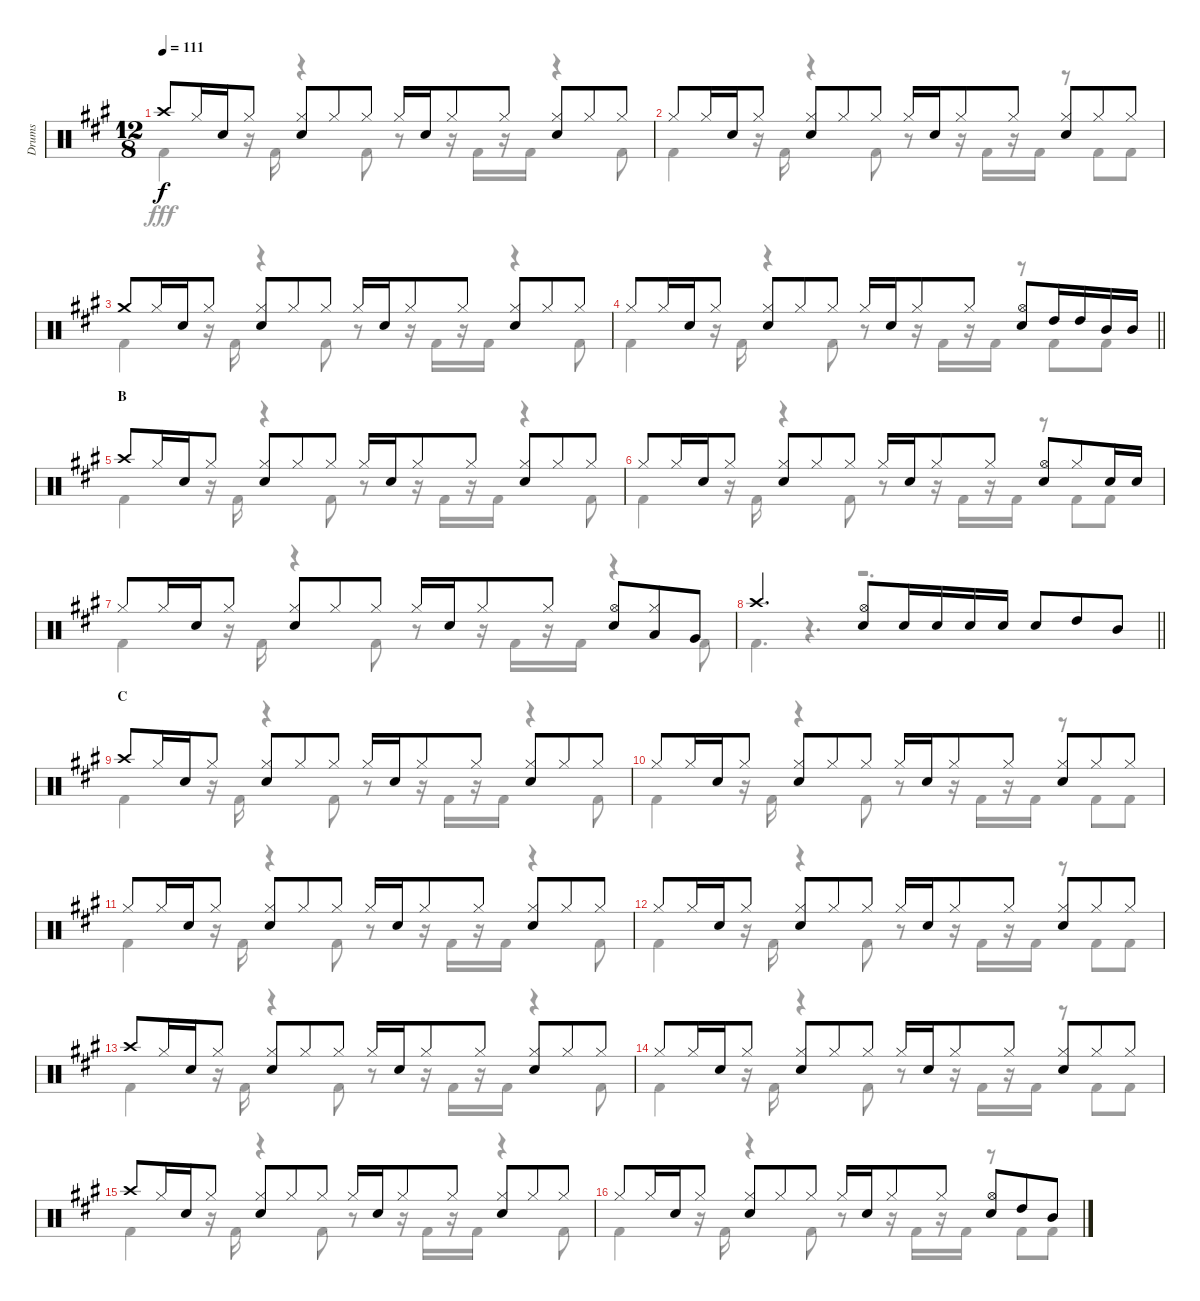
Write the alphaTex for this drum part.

\track ("Drums" "Drums") {instrument percussion}
\staff {score}
\articulation defaults
\voice
\ts (12 8)
\tempo 111
\clef neutral
\ks a "Crash high (hit)".8{dy f} "Hi-Hat (closed)".16 "Snare (hit) 2".16 "Hi-Hat (closed)".8
("Hi-Hat (closed)" "Snare (hit) 2").8 "Hi-Hat (closed)".8 "Hi-Hat (closed)".8 "Hi-Hat (closed)".16 "Snare (hit) 2".16 "Hi-Hat (closed)".8 "Hi-Hat (closed)".8 ("Hi-Hat (closed)" "Snare (hit) 2").8 "Hi-Hat (closed)".8 "Hi-Hat (closed)".8 |
"Hi-Hat (closed)".8 "Hi-Hat (closed)".16 "Snare (hit) 2".16 "Hi-Hat (closed)".8 ("Hi-Hat (closed)" "Snare (hit) 2").8 "Hi-Hat (closed)".8 "Hi-Hat (closed)".8 "Hi-Hat (closed)".16 "Snare (hit) 2".16 "Hi-Hat (closed)".8 "Hi-Hat (closed)".8 ("Hi-Hat (closed)" "Snare (hit) 2").8 "Hi-Hat (closed)".8 "Hi-Hat (closed)".8 |
"Crash medium (hit)".8 "Hi-Hat (closed)".16 "Snare (hit) 2".16 "Hi-Hat (closed)".8 ("Hi-Hat (closed)" "Snare (hit) 2").8 "Hi-Hat (closed)".8 "Hi-Hat (closed)".8 "Hi-Hat (closed)".16 "Snare (hit) 2".16 "Hi-Hat (closed)".8 "Hi-Hat (closed)".8 ("Hi-Hat (closed)" "Snare (hit) 2").8 "Hi-Hat (closed)".8 "Hi-Hat (closed)".8 |
\barLineRight lightlight "Hi-Hat (closed)".8 "Hi-Hat (closed)".16 "Snare (hit) 2".16 "Hi-Hat (closed)".8
("Hi-Hat (closed)" "Snare (hit) 2").8 "Hi-Hat (closed)".8 "Hi-Hat (closed)".8 "Hi-Hat (closed)".16 "Snare (hit) 2".16 "Hi-Hat (closed)".8 "Hi-Hat (closed)".8 ("Hi-Hat (open)" "Snare (hit) 2").8 "High Tom (hit)".16 "High Tom (hit)".16 "Mid Tom (hit)".16 "Mid Tom (hit)".16 |
\section ("" "B")
"Crash high (hit)".8 "Hi-Hat (closed)".16 "Snare (hit) 2".16 "Hi-Hat (closed)".8 ("Hi-Hat (closed)" "Snare (hit) 2").8 "Hi-Hat (closed)".8 "Hi-Hat (closed)".8 "Hi-Hat (closed)".16 "Snare (hit) 2".16 "Hi-Hat (closed)".8 "Hi-Hat (closed)".8 ("Hi-Hat (closed)" "Snare (hit) 2").8 "Hi-Hat (closed)".8 "Hi-Hat (closed)".8 |
"Hi-Hat (closed)".8 "Hi-Hat (closed)".16 "Snare (hit) 2".16 "Hi-Hat (closed)".8 ("Hi-Hat (closed)" "Snare (hit) 2").8 "Hi-Hat (closed)".8 "Hi-Hat (closed)".8 "Hi-Hat (closed)".16 "Snare (hit) 2".16 "Hi-Hat (closed)".8 "Hi-Hat (closed)".8 ("Hi-Hat (open)" "Snare (hit) 2").8 "Hi-Hat (closed)".8 "Snare (hit) 2".16 "Snare (hit) 2".16 |
"Hi-Hat (closed)".8 "Hi-Hat (closed)".16 "Snare (hit) 2".16 "Hi-Hat (closed)".8 ("Hi-Hat (closed)" "Snare (hit) 2").8 "Hi-Hat (closed)".8 "Hi-Hat (closed)".8 "Hi-Hat (closed)".16 "Snare (hit) 2".16 "Hi-Hat (closed)".8 "Hi-Hat (closed)".8 ("Hi-Hat (open)" "Snare (hit) 2").8 ("Hi-Hat (closed)" "Low Tom (hit)").8 "Very Low Tom (hit)".8 |
\barLineRight lightlight "Crash high (hit)".2{d}
("Hi-Hat (open)" "Snare (hit) 2").8 "Snare (hit) 2".16 "Snare (hit) 2".16 "Snare (hit) 2".16 "Snare (hit) 2".16 "Snare (hit) 2".8 "High Tom (hit)".8 "Mid Tom (hit)".8 |
\section ("" "C")
"Crash high (hit)".8 "Hi-Hat (closed)".16 "Snare (hit) 2".16 "Hi-Hat (closed)".8 ("Hi-Hat (closed)" "Snare (hit) 2").8 "Hi-Hat (closed)".8 "Hi-Hat (closed)".8 "Hi-Hat (closed)".16 "Snare (hit) 2".16 "Hi-Hat (closed)".8 "Hi-Hat (closed)".8 ("Hi-Hat (closed)" "Snare (hit) 2").8 "Hi-Hat (closed)".8 "Hi-Hat (closed)".8 |
"Hi-Hat (closed)".8 "Hi-Hat (closed)".16 "Snare (hit) 2".16 "Hi-Hat (closed)".8 ("Hi-Hat (closed)" "Snare (hit) 2").8 "Hi-Hat (closed)".8 "Hi-Hat (closed)".8 "Hi-Hat (closed)".16 "Snare (hit) 2".16 "Hi-Hat (closed)".8 "Hi-Hat (closed)".8 ("Hi-Hat (closed)" "Snare (hit) 2").8 "Hi-Hat (closed)".8 "Hi-Hat (closed)".8 |
"Hi-Hat (closed)".8 "Hi-Hat (closed)".16 "Snare (hit) 2".16 "Hi-Hat (closed)".8 ("Hi-Hat (closed)" "Snare (hit) 2").8 "Hi-Hat (closed)".8 "Hi-Hat (closed)".8 "Hi-Hat (closed)".16 "Snare (hit) 2".16 "Hi-Hat (closed)".8 "Hi-Hat (closed)".8 ("Hi-Hat (closed)" "Snare (hit) 2").8 "Hi-Hat (closed)".8 "Hi-Hat (closed)".8 |
"Hi-Hat (closed)".8 "Hi-Hat (closed)".16 "Snare (hit) 2".16 "Hi-Hat (closed)".8 ("Hi-Hat (closed)" "Snare (hit) 2").8 "Hi-Hat (closed)".8 "Hi-Hat (closed)".8 "Hi-Hat (closed)".16 "Snare (hit) 2".16 "Hi-Hat (closed)".8 "Hi-Hat (closed)".8 ("Hi-Hat (closed)" "Snare (hit) 2").8 "Hi-Hat (closed)".8 "Hi-Hat (closed)".8 |
"Crash high (hit)".8 "Hi-Hat (closed)".16 "Snare (hit) 2".16 "Hi-Hat (closed)".8 ("Hi-Hat (closed)" "Snare (hit) 2").8 "Hi-Hat (closed)".8 "Hi-Hat (closed)".8 "Hi-Hat (closed)".16 "Snare (hit) 2".16 "Hi-Hat (closed)".8 "Hi-Hat (closed)".8 ("Hi-Hat (closed)" "Snare (hit) 2").8 "Hi-Hat (closed)".8 "Hi-Hat (closed)".8 |
"Hi-Hat (closed)".8 "Hi-Hat (closed)".16 "Snare (hit) 2".16 "Hi-Hat (closed)".8 ("Hi-Hat (closed)" "Snare (hit) 2").8 "Hi-Hat (closed)".8 "Hi-Hat (closed)".8 "Hi-Hat (closed)".16 "Snare (hit) 2".16 "Hi-Hat (closed)".8 "Hi-Hat (closed)".8 ("Hi-Hat (closed)" "Snare (hit) 2").8 "Hi-Hat (closed)".8 "Hi-Hat (closed)".8 |
"Crash high (hit)".8 "Hi-Hat (closed)".16 "Snare (hit) 2".16 "Hi-Hat (closed)".8 ("Hi-Hat (closed)" "Snare (hit) 2").8 "Hi-Hat (closed)".8 "Hi-Hat (closed)".8 "Hi-Hat (closed)".16 "Snare (hit) 2".16 "Hi-Hat (closed)".8 "Hi-Hat (closed)".8 ("Hi-Hat (closed)" "Snare (hit) 2").8 "Hi-Hat (closed)".8 "Hi-Hat (closed)".8 |
"Hi-Hat (closed)".8 "Hi-Hat (closed)".16 "Snare (hit) 2".16 "Hi-Hat (closed)".8 ("Hi-Hat (closed)" "Snare (hit) 2").8 "Hi-Hat (closed)".8 "Hi-Hat (closed)".8 "Hi-Hat (closed)".16 "Snare (hit) 2".16 "Hi-Hat (closed)".8 "Hi-Hat (closed)".8 ("Hi-Hat (open)" "Snare (hit) 2").8 "High Tom (hit)".8 "Mid Tom (hit)".8
\voice
\clef neutral
\ottava regular
\simile none
\ks a "Kick (hit) 2".4{dy fff}
r.16 "Kick (hit) 2".16 r.4 "Kick (hit) 2".8 r.8 r.16 "Kick (hit) 2".16 r.16 "Kick (hit) 2".16 r.4 "Kick (hit) 2".8 |
"Kick (hit) 2".4 r.16 "Kick (hit) 2".16 r.4 "Kick (hit) 2".8 r.8 r.16 "Kick (hit) 2".16 r.16 "Kick (hit) 2".16 r.8 "Kick (hit) 2".8 "Kick (hit) 2".8 |
"Kick (hit) 2".4 r.16 "Kick (hit) 2".16 r.4 "Kick (hit) 2".8 r.8 r.16 "Kick (hit) 2".16 r.16 "Kick (hit) 2".16 r.4 "Kick (hit) 2".8 |
\barLineRight lightlight "Kick (hit) 2".4
r.16 "Kick (hit) 2".16 r.4 "Kick (hit) 2".8 r.8 r.16 "Kick (hit) 2".16 r.16 "Kick (hit) 2".16 r.8 "Kick (hit) 2".8 "Kick (hit) 2".8 |
"Kick (hit) 2".4 r.16 "Kick (hit) 2".16 r.4 "Kick (hit) 2".8 r.8 r.16 "Kick (hit) 2".16 r.16 "Kick (hit) 2".16 r.4 "Kick (hit) 2".8 |
"Kick (hit) 2".4 r.16 "Kick (hit) 2".16 r.4 "Kick (hit) 2".8 r.8 r.16 "Kick (hit) 2".16 r.16 "Kick (hit) 2".16 r.8 "Kick (hit) 2".8 "Kick (hit) 2".8 |
"Kick (hit) 2".4 r.16 "Kick (hit) 2".16 r.4 "Kick (hit) 2".8 r.8 r.16 "Kick (hit) 2".16 r.16 "Kick (hit) 2".16 r.4 "Kick (hit) 2".8 |
\barLineRight lightlight "Kick (hit) 2".4{d}
r.4{d} r.2{d} |
"Kick (hit) 2".4 r.16 "Kick (hit) 2".16 r.4 "Kick (hit) 2".8 r.8 r.16 "Kick (hit) 2".16 r.16 "Kick (hit) 2".16 r.4 "Kick (hit) 2".8 |
"Kick (hit) 2".4 r.16 "Kick (hit) 2".16 r.4 "Kick (hit) 2".8 r.8 r.16 "Kick (hit) 2".16 r.16 "Kick (hit) 2".16 r.8 "Kick (hit) 2".8 "Kick (hit) 2".8 |
"Kick (hit) 2".4 r.16 "Kick (hit) 2".16 r.4 "Kick (hit) 2".8 r.8 r.16 "Kick (hit) 2".16 r.16 "Kick (hit) 2".16 r.4 "Kick (hit) 2".8 |
"Kick (hit) 2".4 r.16 "Kick (hit) 2".16 r.4 "Kick (hit) 2".8 r.8 r.16 "Kick (hit) 2".16 r.16 "Kick (hit) 2".16 r.8 "Kick (hit) 2".8 "Kick (hit) 2".8 |
"Kick (hit) 2".4 r.16 "Kick (hit) 2".16 r.4 "Kick (hit) 2".8 r.8 r.16 "Kick (hit) 2".16 r.16 "Kick (hit) 2".16 r.4 "Kick (hit) 2".8 |
"Kick (hit) 2".4 r.16 "Kick (hit) 2".16 r.4 "Kick (hit) 2".8 r.8 r.16 "Kick (hit) 2".16 r.16 "Kick (hit) 2".16 r.8 "Kick (hit) 2".8 "Kick (hit) 2".8 |
"Kick (hit) 2".4 r.16 "Kick (hit) 2".16 r.4 "Kick (hit) 2".8 r.8 r.16 "Kick (hit) 2".16 r.16 "Kick (hit) 2".16 r.4 "Kick (hit) 2".8 |
"Kick (hit) 2".4 r.16 "Kick (hit) 2".16 r.4 "Kick (hit) 2".8 r.8 r.16 "Kick (hit) 2".16 r.16 "Kick (hit) 2".16 r.8 "Kick (hit) 2".8 "Kick (hit) 2".8
